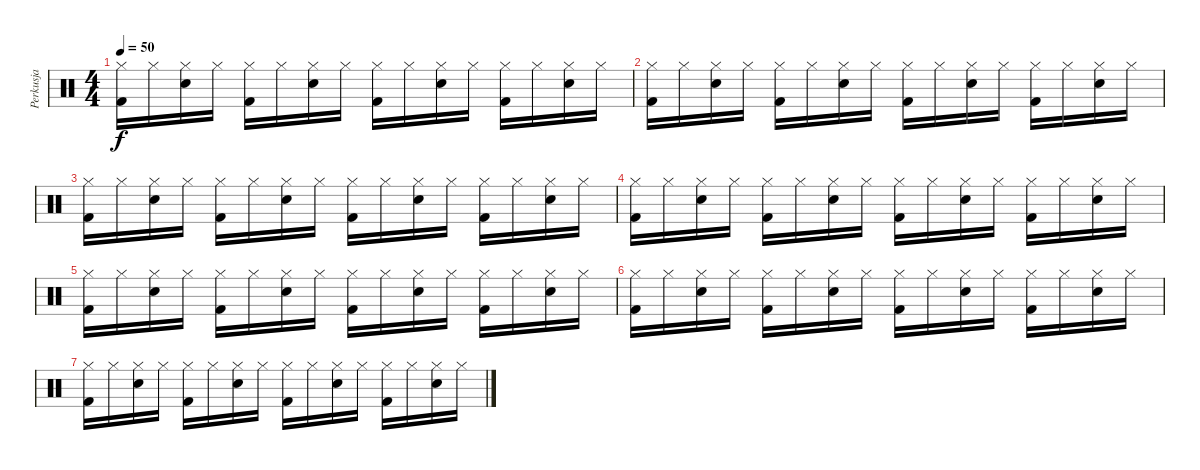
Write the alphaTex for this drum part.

\track ("Perkusja" "Perkusja") {instrument percussion}
\staff {score}
\articulation defaults
\ts (4 4)
\tempo 50
\clef neutral
\ks c
("Hi-Hat (closed)" "Kick (hit) 2").16{dy f} "Hi-Hat (closed)".16 ("Snare (hit) 2" "Hi-Hat (closed)").16 "Hi-Hat (closed)".16 ("Hi-Hat (closed)" "Kick (hit) 2").16 "Hi-Hat (closed)".16 ("Snare (hit) 2" "Hi-Hat (closed)").16 "Hi-Hat (closed)".16 ("Hi-Hat (closed)" "Kick (hit) 2").16 "Hi-Hat (closed)".16 ("Snare (hit) 2" "Hi-Hat (closed)").16 "Hi-Hat (closed)".16 ("Hi-Hat (closed)" "Kick (hit) 2").16 "Hi-Hat (closed)".16 ("Snare (hit) 2" "Hi-Hat (closed)").16 "Hi-Hat (closed)".16 |
("Hi-Hat (closed)" "Kick (hit) 2").16 "Hi-Hat (closed)".16 ("Snare (hit) 2" "Hi-Hat (closed)").16 "Hi-Hat (closed)".16 ("Hi-Hat (closed)" "Kick (hit) 2").16 "Hi-Hat (closed)".16 ("Snare (hit) 2" "Hi-Hat (closed)").16 "Hi-Hat (closed)".16 ("Hi-Hat (closed)" "Kick (hit) 2").16 "Hi-Hat (closed)".16 ("Snare (hit) 2" "Hi-Hat (closed)").16 "Hi-Hat (closed)".16 ("Hi-Hat (closed)" "Kick (hit) 2").16 "Hi-Hat (closed)".16 ("Snare (hit) 2" "Hi-Hat (closed)").16 "Hi-Hat (closed)".16 |
("Hi-Hat (closed)" "Kick (hit) 2").16 "Hi-Hat (closed)".16 ("Snare (hit) 2" "Hi-Hat (closed)").16 "Hi-Hat (closed)".16 ("Hi-Hat (closed)" "Kick (hit) 2").16 "Hi-Hat (closed)".16 ("Snare (hit) 2" "Hi-Hat (closed)").16 "Hi-Hat (closed)".16 ("Hi-Hat (closed)" "Kick (hit) 2").16 "Hi-Hat (closed)".16 ("Snare (hit) 2" "Hi-Hat (closed)").16 "Hi-Hat (closed)".16 ("Hi-Hat (closed)" "Kick (hit) 2").16 "Hi-Hat (closed)".16 ("Snare (hit) 2" "Hi-Hat (closed)").16 "Hi-Hat (closed)".16 |
("Hi-Hat (closed)" "Kick (hit) 2").16 "Hi-Hat (closed)".16 ("Snare (hit) 2" "Hi-Hat (closed)").16 "Hi-Hat (closed)".16 ("Hi-Hat (closed)" "Kick (hit) 2").16 "Hi-Hat (closed)".16 ("Snare (hit) 2" "Hi-Hat (closed)").16 "Hi-Hat (closed)".16 ("Hi-Hat (closed)" "Kick (hit) 2").16 "Hi-Hat (closed)".16 ("Snare (hit) 2" "Hi-Hat (closed)").16 "Hi-Hat (closed)".16 ("Hi-Hat (closed)" "Kick (hit) 2").16 "Hi-Hat (closed)".16 ("Snare (hit) 2" "Hi-Hat (closed)").16 "Hi-Hat (closed)".16 |
("Hi-Hat (closed)" "Kick (hit) 2").16 "Hi-Hat (closed)".16 ("Snare (hit) 2" "Hi-Hat (closed)").16 "Hi-Hat (closed)".16 ("Hi-Hat (closed)" "Kick (hit) 2").16 "Hi-Hat (closed)".16 ("Snare (hit) 2" "Hi-Hat (closed)").16 "Hi-Hat (closed)".16 ("Hi-Hat (closed)" "Kick (hit) 2").16 "Hi-Hat (closed)".16 ("Snare (hit) 2" "Hi-Hat (closed)").16 "Hi-Hat (closed)".16 ("Hi-Hat (closed)" "Kick (hit) 2").16 "Hi-Hat (closed)".16 ("Snare (hit) 2" "Hi-Hat (closed)").16 "Hi-Hat (closed)".16 |
("Hi-Hat (closed)" "Kick (hit) 2").16 "Hi-Hat (closed)".16 ("Snare (hit) 2" "Hi-Hat (closed)").16 "Hi-Hat (closed)".16 ("Hi-Hat (closed)" "Kick (hit) 2").16 "Hi-Hat (closed)".16 ("Snare (hit) 2" "Hi-Hat (closed)").16 "Hi-Hat (closed)".16 ("Hi-Hat (closed)" "Kick (hit) 2").16 "Hi-Hat (closed)".16 ("Snare (hit) 2" "Hi-Hat (closed)").16 "Hi-Hat (closed)".16 ("Hi-Hat (closed)" "Kick (hit) 2").16 "Hi-Hat (closed)".16 ("Snare (hit) 2" "Hi-Hat (closed)").16 "Hi-Hat (closed)".16 |
("Hi-Hat (closed)" "Kick (hit) 2").16 "Hi-Hat (closed)".16 ("Snare (hit) 2" "Hi-Hat (closed)").16 "Hi-Hat (closed)".16 ("Hi-Hat (closed)" "Kick (hit) 2").16 "Hi-Hat (closed)".16 ("Snare (hit) 2" "Hi-Hat (closed)").16 "Hi-Hat (closed)".16 ("Hi-Hat (closed)" "Kick (hit) 2").16 "Hi-Hat (closed)".16 ("Snare (hit) 2" "Hi-Hat (closed)").16 "Hi-Hat (closed)".16 ("Hi-Hat (closed)" "Kick (hit) 2").16 "Hi-Hat (closed)".16 ("Snare (hit) 2" "Hi-Hat (closed)").16 "Hi-Hat (closed)".16
